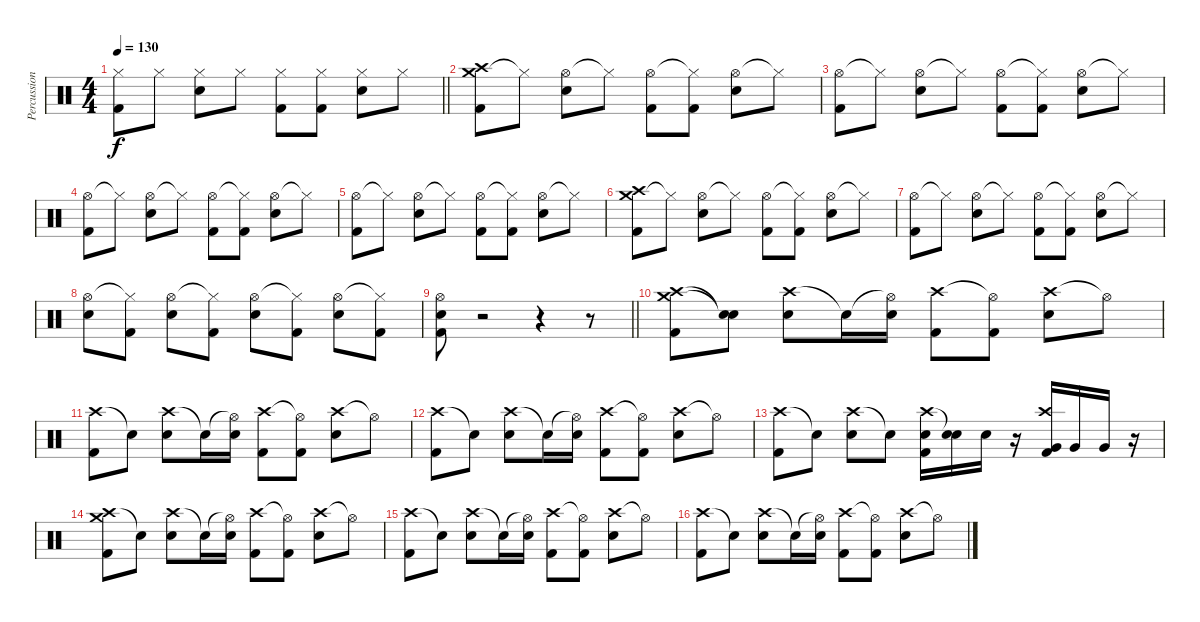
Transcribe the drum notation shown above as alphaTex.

\track ("Percussion" "Percussion") {instrument percussion}
\staff {score}
\articulation defaults
\ts (4 4)
\tempo 130
\clef neutral
\barLineRight lightlight
\ks c
("Hi-Hat (closed)" "Kick (hit) 2").8{dy f} "Hi-Hat (closed)".8 ("Hi-Hat (closed)" "Electric Snare (hit)").8 "Hi-Hat (closed)".8 ("Hi-Hat (closed)" "Kick (hit) 2").8 ("Hi-Hat (closed)" "Kick (hit) 2").8 ("Hi-Hat (closed)" "Electric Snare (hit)").8 "Hi-Hat (closed)".8 |
("Crash medium (hit)" "Crash high (hit)" "Kick (hit) 2").8 "Hi-Hat (closed)"{t}.8 ("Hi-Hat (open)" "Electric Snare (hit)").8 "Hi-Hat (closed)"{t}.8 ("Hi-Hat (open)" "Kick (hit) 2").8 ("Hi-Hat (closed)"{t} "Kick (hit) 2").8 ("Hi-Hat (open)" "Electric Snare (hit)").8 "Hi-Hat (closed)"{t}.8 |
("Hi-Hat (open)" "Kick (hit) 2").8 "Hi-Hat (closed)"{t}.8 ("Hi-Hat (open)" "Electric Snare (hit)").8 "Hi-Hat (closed)"{t}.8 ("Hi-Hat (open)" "Kick (hit) 2").8 ("Hi-Hat (closed)"{t} "Kick (hit) 2").8 ("Hi-Hat (open)" "Electric Snare (hit)").8 "Hi-Hat (closed)"{t}.8 |
("Hi-Hat (open)" "Kick (hit) 2").8 "Hi-Hat (closed)"{t}.8 ("Hi-Hat (open)" "Electric Snare (hit)").8 "Hi-Hat (closed)"{t}.8 ("Hi-Hat (open)" "Kick (hit) 2").8 ("Hi-Hat (closed)"{t} "Kick (hit) 2").8 ("Hi-Hat (open)" "Electric Snare (hit)").8 "Hi-Hat (closed)"{t}.8 |
("Hi-Hat (open)" "Kick (hit) 2").8 "Hi-Hat (closed)"{t}.8 ("Hi-Hat (open)" "Electric Snare (hit)").8 "Hi-Hat (closed)"{t}.8 ("Hi-Hat (open)" "Kick (hit) 2").8 ("Hi-Hat (closed)"{t} "Kick (hit) 2").8 ("Hi-Hat (open)" "Electric Snare (hit)").8 "Hi-Hat (closed)"{t}.8 |
("Crash medium (hit)" "Crash high (hit)" "Kick (hit) 2").8 "Hi-Hat (closed)"{t}.8 ("Hi-Hat (open)" "Electric Snare (hit)").8 "Hi-Hat (closed)"{t}.8 ("Hi-Hat (open)" "Kick (hit) 2").8 ("Hi-Hat (closed)"{t} "Kick (hit) 2").8 ("Hi-Hat (open)" "Electric Snare (hit)").8 "Hi-Hat (closed)"{t}.8 |
("Hi-Hat (open)" "Kick (hit) 2").8 "Hi-Hat (closed)"{t}.8 ("Hi-Hat (open)" "Electric Snare (hit)").8 "Hi-Hat (closed)"{t}.8 ("Hi-Hat (open)" "Kick (hit) 2").8 ("Hi-Hat (closed)"{t} "Kick (hit) 2").8 ("Hi-Hat (open)" "Electric Snare (hit)").8 "Hi-Hat (closed)"{t}.8 |
("Hi-Hat (open)" "Electric Snare (hit)").8 ("Hi-Hat (closed)"{t} "Kick (hit) 2").8 ("Hi-Hat (open)" "Electric Snare (hit)").8 ("Hi-Hat (closed)"{t} "Kick (hit) 2").8 ("Hi-Hat (open)" "Electric Snare (hit)").8 ("Hi-Hat (closed)"{t} "Kick (hit) 2").8 ("Hi-Hat (open)" "Electric Snare (hit)").8 ("Hi-Hat (closed)"{t} "Kick (hit) 2").8 |
\barLineRight lightlight
("Hi-Hat (open)" "Electric Snare (hit)" "Kick (hit) 2").8 r.2 r.4 r.8 |
("Crash medium (hit)" "Crash high (hit)" "Kick (hit) 2").8 ("Snare (hit)"{t} "Snare (hit)"{t}).8 ("Crash high (hit)" "Electric Snare (hit)").8 "Snare (hit)"{t}.16 ("Hi-Hat (open)"{t} "Electric Snare (hit)").16 ("Crash high (hit)" "Kick (hit) 2").8 ("Hi-Hat (open)"{t} "Kick (hit) 2").8 ("Crash high (hit)" "Electric Snare (hit)").8 "Hi-Hat (open)"{t}.8 |
("Crash high (hit)" "Kick (hit) 2").8 "Snare (hit)"{t}.8 ("Crash high (hit)" "Electric Snare (hit)").8 "Snare (hit)"{t}.16 ("Hi-Hat (open)"{t} "Electric Snare (hit)").16 ("Crash high (hit)" "Kick (hit) 2").8 ("Hi-Hat (open)"{t} "Kick (hit) 2").8 ("Crash high (hit)" "Electric Snare (hit)").8 "Hi-Hat (open)"{t}.8 |
("Crash high (hit)" "Kick (hit) 2").8 "Snare (hit)"{t}.8 ("Crash high (hit)" "Electric Snare (hit)").8 "Snare (hit)"{t}.16 ("Hi-Hat (open)"{t} "Electric Snare (hit)").16 ("Crash high (hit)" "Kick (hit) 2").8 ("Hi-Hat (open)"{t} "Kick (hit) 2").8 ("Crash high (hit)" "Electric Snare (hit)").8 "Hi-Hat (open)"{t}.8 |
("Crash high (hit)" "Kick (hit) 2").8 "Snare (hit)"{t}.8 ("Crash high (hit)" "Electric Snare (hit)").8 "Snare (hit)"{t}.8 ("Crash high (hit)" "Electric Snare (hit)" "Kick (hit) 2").16 ("Snare (hit)"{t} "Electric Snare (hit)").16 "Electric Snare (hit)".16 r.16 ("Crash high (hit)" "Very Low Tom (hit)" "Kick (hit) 2").16 "Very Low Tom (hit)".16 "Very Low Tom (hit)".16 r.16 |
("Crash high (hit)" "Crash medium (hit)" "Kick (hit) 2").8 "Snare (hit)"{t}.8 ("Crash high (hit)" "Electric Snare (hit)").8 "Snare (hit)"{t}.16 ("Hi-Hat (open)"{t} "Electric Snare (hit)").16 ("Crash high (hit)" "Kick (hit) 2").8 ("Hi-Hat (open)"{t} "Kick (hit) 2").8 ("Crash high (hit)" "Electric Snare (hit)").8 "Hi-Hat (open)"{t}.8 |
("Crash high (hit)" "Kick (hit) 2").8 "Snare (hit)"{t}.8 ("Crash high (hit)" "Electric Snare (hit)").8 "Snare (hit)"{t}.16 ("Hi-Hat (open)"{t} "Electric Snare (hit)").16 ("Crash high (hit)" "Kick (hit) 2").8 ("Hi-Hat (open)"{t} "Kick (hit) 2").8 ("Crash high (hit)" "Electric Snare (hit)").8 "Hi-Hat (open)"{t}.8 |
("Crash high (hit)" "Kick (hit) 2").8 "Snare (hit)"{t}.8 ("Crash high (hit)" "Electric Snare (hit)").8 "Snare (hit)"{t}.16 ("Hi-Hat (open)"{t} "Electric Snare (hit)").16 ("Crash high (hit)" "Kick (hit) 2").8 ("Hi-Hat (open)"{t} "Kick (hit) 2").8 ("Crash high (hit)" "Electric Snare (hit)").8 "Hi-Hat (open)"{t}.8
